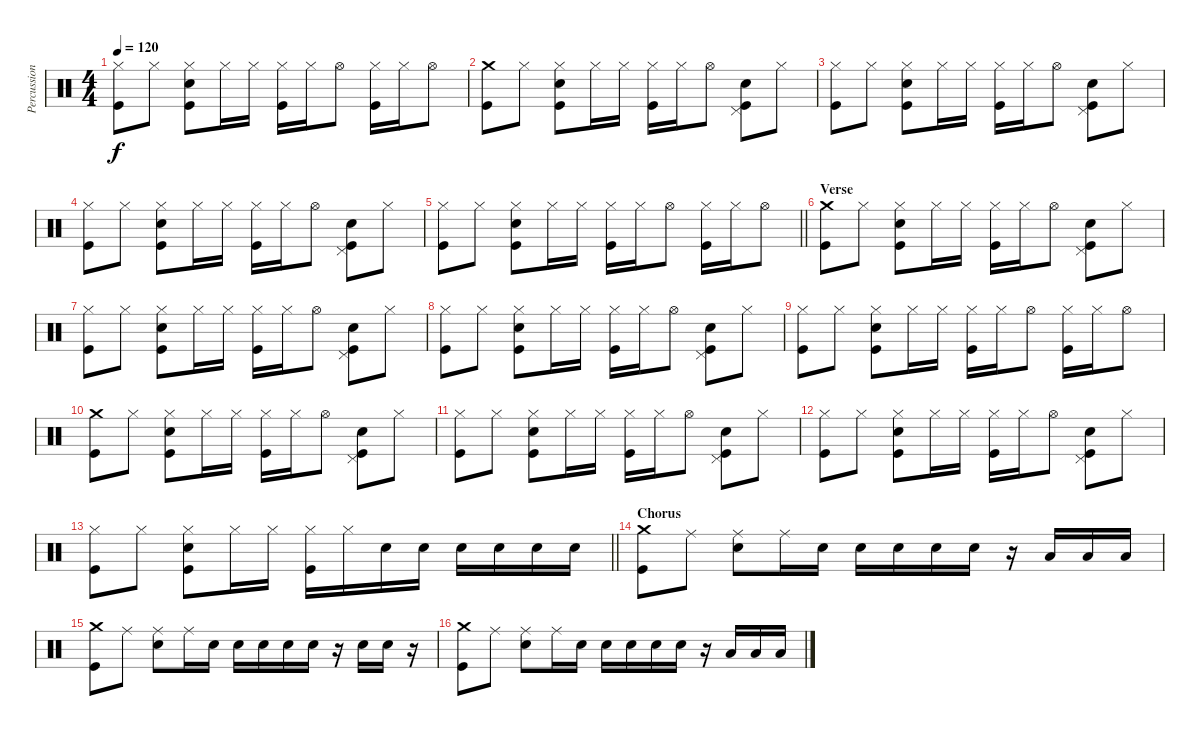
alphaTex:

\track ("Percussion" "Percussion") {instrument percussion}
\staff {score}
\articulation defaults
\ts (4 4)
\tempo 120
\clef neutral
\ks c
("Hi-Hat (closed)" "Kick (hit)").8{dy f} "Hi-Hat (closed)".8 ("Snare (hit) 2" "Hi-Hat (closed)" "Kick (hit)").8 "Hi-Hat (closed)".16 "Hi-Hat (closed)".16 ("Hi-Hat (closed)" "Kick (hit)").16 "Hi-Hat (closed)".16 "Hi-Hat (open)".8 ("Hi-Hat (closed)" "Kick (hit)").16 "Hi-Hat (closed)".16 "Hi-Hat (open)".8 |
("Crash medium (hit)" "Kick (hit)").8 "Hi-Hat (closed)".8 ("Snare (hit) 2" "Hi-Hat (closed)" "Kick (hit)").8 "Hi-Hat (closed)".16 "Hi-Hat (closed)".16 ("Hi-Hat (closed)" "Kick (hit)").16 "Hi-Hat (closed)".16 "Hi-Hat (open)".8 ("Snare (hit) 2" "Pedal Hi-Hat (hit)" "Kick (hit)").8 "Hi-Hat (closed)".8 |
("Hi-Hat (closed)" "Kick (hit)").8 "Hi-Hat (closed)".8 ("Snare (hit) 2" "Hi-Hat (closed)" "Kick (hit)").8 "Hi-Hat (closed)".16 "Hi-Hat (closed)".16 ("Hi-Hat (closed)" "Kick (hit)").16 "Hi-Hat (closed)".16 "Hi-Hat (open)".8 ("Snare (hit) 2" "Pedal Hi-Hat (hit)" "Kick (hit)").8 "Hi-Hat (closed)".8 |
("Hi-Hat (closed)" "Kick (hit)").8 "Hi-Hat (closed)".8 ("Snare (hit) 2" "Hi-Hat (closed)" "Kick (hit)").8 "Hi-Hat (closed)".16 "Hi-Hat (closed)".16 ("Hi-Hat (closed)" "Kick (hit)").16 "Hi-Hat (closed)".16 "Hi-Hat (open)".8 ("Snare (hit) 2" "Pedal Hi-Hat (hit)" "Kick (hit)").8 "Hi-Hat (closed)".8 |
\barLineRight lightlight
("Hi-Hat (closed)" "Kick (hit)").8 "Hi-Hat (closed)".8 ("Snare (hit) 2" "Hi-Hat (closed)" "Kick (hit)").8 "Hi-Hat (closed)".16 "Hi-Hat (closed)".16 ("Hi-Hat (closed)" "Kick (hit)").16 "Hi-Hat (closed)".16 "Hi-Hat (open)".8 ("Hi-Hat (closed)" "Kick (hit)").16 "Hi-Hat (closed)".16 "Hi-Hat (open)".8 |
\section ("" "Verse")
("Crash medium (hit)" "Kick (hit)").8 "Hi-Hat (closed)".8 ("Snare (hit) 2" "Hi-Hat (closed)" "Kick (hit)").8 "Hi-Hat (closed)".16 "Hi-Hat (closed)".16 ("Hi-Hat (closed)" "Kick (hit)").16 "Hi-Hat (closed)".16 "Hi-Hat (open)".8 ("Snare (hit) 2" "Pedal Hi-Hat (hit)" "Kick (hit)").8 "Hi-Hat (closed)".8 |
("Hi-Hat (closed)" "Kick (hit)").8 "Hi-Hat (closed)".8 ("Snare (hit) 2" "Hi-Hat (closed)" "Kick (hit)").8 "Hi-Hat (closed)".16 "Hi-Hat (closed)".16 ("Hi-Hat (closed)" "Kick (hit)").16 "Hi-Hat (closed)".16 "Hi-Hat (open)".8 ("Snare (hit) 2" "Pedal Hi-Hat (hit)" "Kick (hit)").8 "Hi-Hat (closed)".8 |
("Hi-Hat (closed)" "Kick (hit)").8 "Hi-Hat (closed)".8 ("Snare (hit) 2" "Hi-Hat (closed)" "Kick (hit)").8 "Hi-Hat (closed)".16 "Hi-Hat (closed)".16 ("Hi-Hat (closed)" "Kick (hit)").16 "Hi-Hat (closed)".16 "Hi-Hat (open)".8 ("Snare (hit) 2" "Pedal Hi-Hat (hit)" "Kick (hit)").8 "Hi-Hat (closed)".8 |
("Hi-Hat (closed)" "Kick (hit)").8 "Hi-Hat (closed)".8 ("Snare (hit) 2" "Hi-Hat (closed)" "Kick (hit)").8 "Hi-Hat (closed)".16 "Hi-Hat (closed)".16 ("Hi-Hat (closed)" "Kick (hit)").16 "Hi-Hat (closed)".16 "Hi-Hat (open)".8 ("Hi-Hat (closed)" "Kick (hit)").16 "Hi-Hat (closed)".16 "Hi-Hat (open)".8 |
("Crash medium (hit)" "Kick (hit)").8 "Hi-Hat (closed)".8 ("Snare (hit) 2" "Hi-Hat (closed)" "Kick (hit)").8 "Hi-Hat (closed)".16 "Hi-Hat (closed)".16 ("Hi-Hat (closed)" "Kick (hit)").16 "Hi-Hat (closed)".16 "Hi-Hat (open)".8 ("Snare (hit) 2" "Pedal Hi-Hat (hit)" "Kick (hit)").8 "Hi-Hat (closed)".8 |
("Hi-Hat (closed)" "Kick (hit)").8 "Hi-Hat (closed)".8 ("Snare (hit) 2" "Hi-Hat (closed)" "Kick (hit)").8 "Hi-Hat (closed)".16 "Hi-Hat (closed)".16 ("Hi-Hat (closed)" "Kick (hit)").16 "Hi-Hat (closed)".16 "Hi-Hat (open)".8 ("Snare (hit) 2" "Pedal Hi-Hat (hit)" "Kick (hit)").8 "Hi-Hat (closed)".8 |
("Hi-Hat (closed)" "Kick (hit)").8 "Hi-Hat (closed)".8 ("Snare (hit) 2" "Hi-Hat (closed)" "Kick (hit)").8 "Hi-Hat (closed)".16 "Hi-Hat (closed)".16 ("Hi-Hat (closed)" "Kick (hit)").16 "Hi-Hat (closed)".16 "Hi-Hat (open)".8 ("Snare (hit) 2" "Pedal Hi-Hat (hit)" "Kick (hit)").8 "Hi-Hat (closed)".8 |
\barLineRight lightlight
("Hi-Hat (closed)" "Kick (hit)").8 "Hi-Hat (closed)".8 ("Snare (hit) 2" "Hi-Hat (closed)" "Kick (hit)").8 "Hi-Hat (closed)".16 "Hi-Hat (closed)".16 ("Hi-Hat (closed)" "Kick (hit)").16 "Hi-Hat (closed)".16 "Snare (hit) 2".16 "Snare (hit) 2".16 "Snare (hit) 2".16 "Snare (hit) 2".16 "Snare (hit) 2".16 "Snare (hit) 2".16 |
\section ("" "Chorus")
("Crash medium (hit)" "Kick (hit)").8 "Ride (middle)".8 ("Ride (middle)" "Snare (hit) 2").8 "Ride (middle)".16 "Snare (hit) 2".16 "Snare (hit) 2".16 "Snare (hit) 2".16 "Snare (hit) 2".16 "Snare (hit) 2".16 r.16 "Low Tom (hit)".16 "Low Tom (hit)".16 "Low Tom (hit)".16 |
("Crash medium (hit)" "Kick (hit)").8 "Ride (middle)".8 ("Ride (middle)" "Snare (hit) 2").8 "Ride (middle)".16 "Snare (hit) 2".16 "Snare (hit) 2".16 "Snare (hit) 2".16 "Snare (hit) 2".16 "Snare (hit) 2".16 r.16 "Snare (hit) 2".16 "Snare (hit) 2".16 r.16 |
("Crash medium (hit)" "Kick (hit)").8 "Ride (middle)".8 ("Ride (middle)" "Snare (hit) 2").8 "Ride (middle)".16 "Snare (hit) 2".16 "Snare (hit) 2".16 "Snare (hit) 2".16 "Snare (hit) 2".16 "Snare (hit) 2".16 r.16 "Low Tom (hit)".16 "Low Tom (hit)".16 "Low Tom (hit)".16
